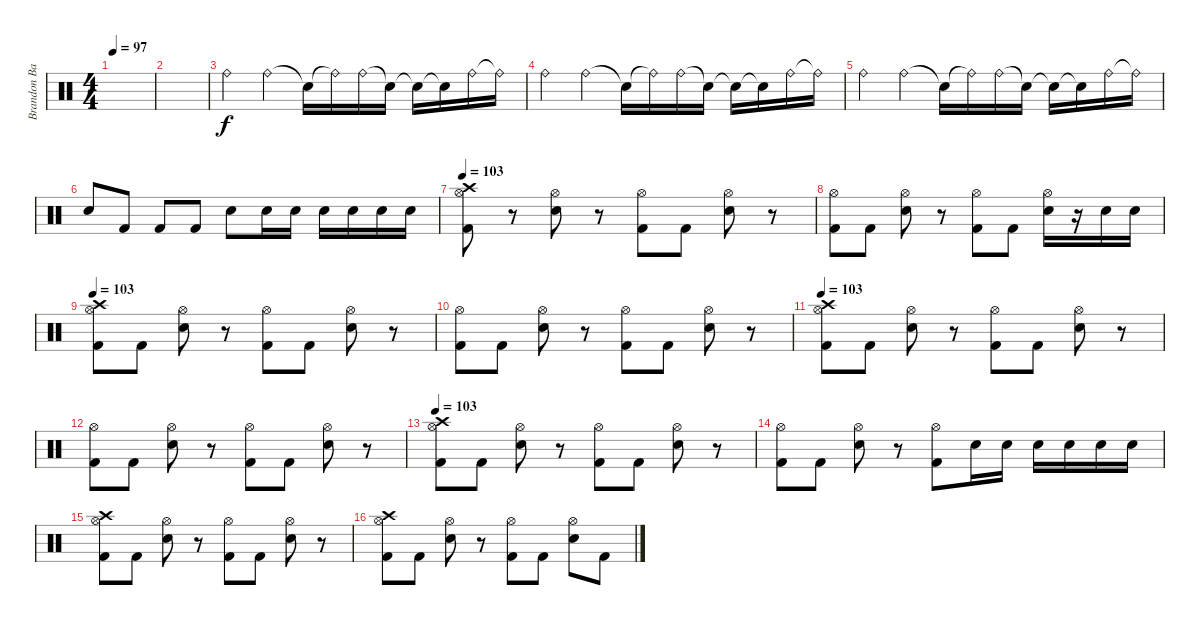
\track ("Brandon Barnes (Drums)" "Brandon Ba") {instrument percussion}
\staff {score}
\articulation defaults
\ts (4 4)
\tempo 97
\clef neutral
\ks c
|
|
"Ride (bell)".4 "Ride (bell)".4 "Snare (hit)"{t}.16 "Ride (bell)"{t}.16 "Ride (bell)".16 "Snare (hit)"{t}.16 "Snare (hit)"{t}.16 "Snare (hit)"{t}.16 "Ride (bell)".16 "Ride (bell)"{t}.16 |
"Ride (bell)".4 "Ride (bell)".4 "Snare (hit)"{t}.16 "Ride (bell)"{t}.16 "Ride (bell)".16 "Snare (hit)"{t}.16 "Snare (hit)"{t}.16 "Snare (hit)"{t}.16 "Ride (bell)".16 "Ride (bell)"{t}.16 |
"Ride (bell)".4 "Ride (bell)".4 "Snare (hit)"{t}.16 "Ride (bell)"{t}.16 "Ride (bell)".16 "Snare (hit)"{t}.16 "Snare (hit)"{t}.16 "Snare (hit)"{t}.16 "Ride (bell)".16 "Ride (bell)"{t}.16 |
"Snare (hit) 2".8 "Kick (hit) 2".8 "Kick (hit) 2".8 "Kick (hit) 2".8 "Snare (hit) 2".8 "Snare (hit) 2".16 "Snare (hit) 2".16 "Snare (hit) 2".16 "Snare (hit) 2".16 "Snare (hit) 2".16 "Snare (hit) 2".16 |
\tempo 103
("Hi-Hat (open)" "Kick (hit) 2" "Crash high (hit)").8 r.8 ("Hi-Hat (open)" "Snare (hit) 2").8 r.8 ("Hi-Hat (open)" "Kick (hit) 2").8 "Kick (hit) 2".8 ("Hi-Hat (open)" "Snare (hit) 2").8 r.8 |
("Hi-Hat (open)" "Kick (hit) 2").8 "Kick (hit) 2".8 ("Hi-Hat (open)" "Snare (hit) 2").8 r.8 ("Hi-Hat (open)" "Kick (hit) 2").8 "Kick (hit) 2".8 ("Hi-Hat (open)" "Snare (hit) 2").16 r.16 "Snare (hit) 2".16 "Snare (hit) 2".16 |
\tempo 103
("Hi-Hat (open)" "Kick (hit) 2" "Crash high (hit)").8 "Kick (hit) 2".8 ("Hi-Hat (open)" "Snare (hit) 2").8 r.8 ("Hi-Hat (open)" "Kick (hit) 2").8 "Kick (hit) 2".8 ("Hi-Hat (open)" "Snare (hit) 2").8 r.8 |
("Hi-Hat (open)" "Kick (hit) 2").8 "Kick (hit) 2".8 ("Hi-Hat (open)" "Snare (hit) 2").8 r.8 ("Hi-Hat (open)" "Kick (hit) 2").8 "Kick (hit) 2".8 ("Hi-Hat (open)" "Snare (hit) 2").8 r.8 |
\tempo 103
("Hi-Hat (open)" "Kick (hit) 2" "Crash high (hit)").8 "Kick (hit) 2".8 ("Hi-Hat (open)" "Snare (hit) 2").8 r.8 ("Hi-Hat (open)" "Kick (hit) 2").8 "Kick (hit) 2".8 ("Hi-Hat (open)" "Snare (hit) 2").8 r.8 |
("Hi-Hat (open)" "Kick (hit) 2").8 "Kick (hit) 2".8 ("Hi-Hat (open)" "Snare (hit) 2").8 r.8 ("Hi-Hat (open)" "Kick (hit) 2").8 "Kick (hit) 2".8 ("Hi-Hat (open)" "Snare (hit) 2").8 r.8 |
\tempo 103
("Hi-Hat (open)" "Kick (hit) 2" "Crash high (hit)").8 "Kick (hit) 2".8 ("Hi-Hat (open)" "Snare (hit) 2").8 r.8 ("Hi-Hat (open)" "Kick (hit) 2").8 "Kick (hit) 2".8 ("Hi-Hat (open)" "Snare (hit) 2").8 r.8 |
("Hi-Hat (open)" "Kick (hit) 2").8 "Kick (hit) 2".8 ("Hi-Hat (open)" "Snare (hit) 2").8 r.8 ("Hi-Hat (open)" "Kick (hit) 2").8 "Snare (hit) 2".16 "Snare (hit) 2".16 "Snare (hit) 2".16 "Snare (hit) 2".16 "Snare (hit) 2".16 "Snare (hit) 2".16 |
("Hi-Hat (open)" "Kick (hit) 2" "Crash high (hit)").8 "Kick (hit) 2".8 ("Hi-Hat (open)" "Snare (hit) 2").8 r.8 ("Hi-Hat (open)" "Kick (hit) 2").8 "Kick (hit) 2".8 ("Hi-Hat (open)" "Snare (hit) 2").8 r.8 |
("Hi-Hat (open)" "Kick (hit) 2" "Crash high (hit)").8 "Kick (hit) 2".8 ("Hi-Hat (open)" "Snare (hit) 2").8 r.8 ("Hi-Hat (open)" "Kick (hit) 2").8 "Kick (hit) 2".8 ("Hi-Hat (open)" "Snare (hit) 2").8 "Kick (hit) 2".8
